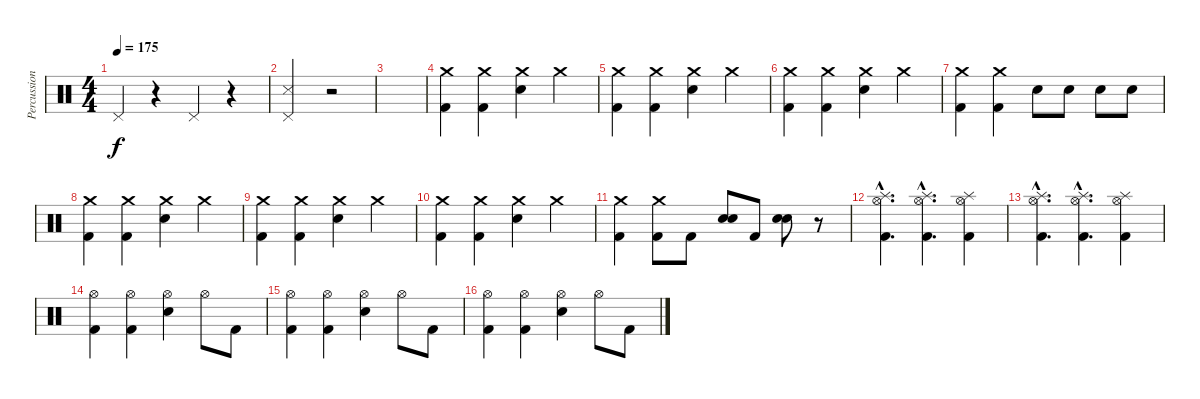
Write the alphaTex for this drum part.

\track ("Percussions" "Percussion") {instrument percussion}
\staff {score}
\articulation defaults
\ts (4 4)
\tempo 175
\clef neutral
\ks c "Pedal Hi-Hat (hit)".4{dy f}
r.4 "Pedal Hi-Hat (hit)".4 r.4 |
("Pedal Hi-Hat (hit)" "Snare (side stick) 3").2 r.2 |
|
("Crash medium (hit)" "Kick (hit) 2").4 ("Crash medium (hit)" "Kick (hit) 2").4 ("Crash medium (hit)" "Electric Snare (hit)").4 "Crash medium (hit)".4 |
("Crash medium (hit)" "Kick (hit) 2").4 ("Crash medium (hit)" "Kick (hit) 2").4 ("Crash medium (hit)" "Electric Snare (hit)").4 "Crash medium (hit)".4 |
("Crash medium (hit)" "Kick (hit) 2").4 ("Crash medium (hit)" "Kick (hit) 2").4 ("Crash medium (hit)" "Electric Snare (hit)").4 "Crash medium (hit)".4 |
("Crash medium (hit)" "Kick (hit) 2").4 ("Crash medium (hit)" "Kick (hit) 2").4 "Electric Snare (hit)".8 "Electric Snare (hit)".8 "Electric Snare (hit)".8 "Electric Snare (hit)".8 |
("Crash medium (hit)" "Kick (hit) 2").4 ("Crash medium (hit)" "Kick (hit) 2").4 ("Crash medium (hit)" "Electric Snare (hit)").4 "Crash medium (hit)".4 |
("Crash medium (hit)" "Kick (hit) 2").4 ("Crash medium (hit)" "Kick (hit) 2").4 ("Crash medium (hit)" "Electric Snare (hit)").4 "Crash medium (hit)".4 |
("Crash medium (hit)" "Kick (hit) 2").4 ("Crash medium (hit)" "Kick (hit) 2").4 ("Crash medium (hit)" "Electric Snare (hit)").4 "Crash medium (hit)".4 |
("Crash medium (hit)" "Kick (hit) 2").4 ("Crash medium (hit)" "Kick (hit) 2").8 "Kick (hit) 2".8 ("Electric Snare (hit)" "Electric Snare (hit)").8{bd 480} "Kick (hit) 2".8 ("Electric Snare (hit)" "Electric Snare (hit)").8{bd 480} r.8 |
("Hi-Hat (open)"{hac} "Splash (hit)"{hac} "Kick (hit) 2"{hac}).4{d} ("Hi-Hat (open)"{hac} "Splash (hit)"{hac} "Kick (hit) 2"{hac}).4{d} ("Hi-Hat (open)" "Splash (hit)" "Kick (hit) 2").4 |
("Hi-Hat (open)"{hac} "Splash (hit)"{hac} "Kick (hit) 2"{hac}).4{d} ("Hi-Hat (open)"{hac} "Splash (hit)"{hac} "Kick (hit) 2"{hac}).4{d} ("Hi-Hat (open)" "Splash (hit)" "Kick (hit) 2").4 |
("Hi-Hat (open)" "Kick (hit) 2").4 ("Hi-Hat (open)" "Kick (hit) 2").4 ("Hi-Hat (open)" "Electric Snare (hit)").4 "Hi-Hat (open)".8 "Kick (hit) 2".8 |
("Hi-Hat (open)" "Kick (hit) 2").4 ("Hi-Hat (open)" "Kick (hit) 2").4 ("Hi-Hat (open)" "Electric Snare (hit)").4 "Hi-Hat (open)".8 "Kick (hit) 2".8 |
("Hi-Hat (open)" "Kick (hit) 2").4 ("Hi-Hat (open)" "Kick (hit) 2").4 ("Hi-Hat (open)" "Electric Snare (hit)").4 "Hi-Hat (open)".8 "Kick (hit) 2".8
